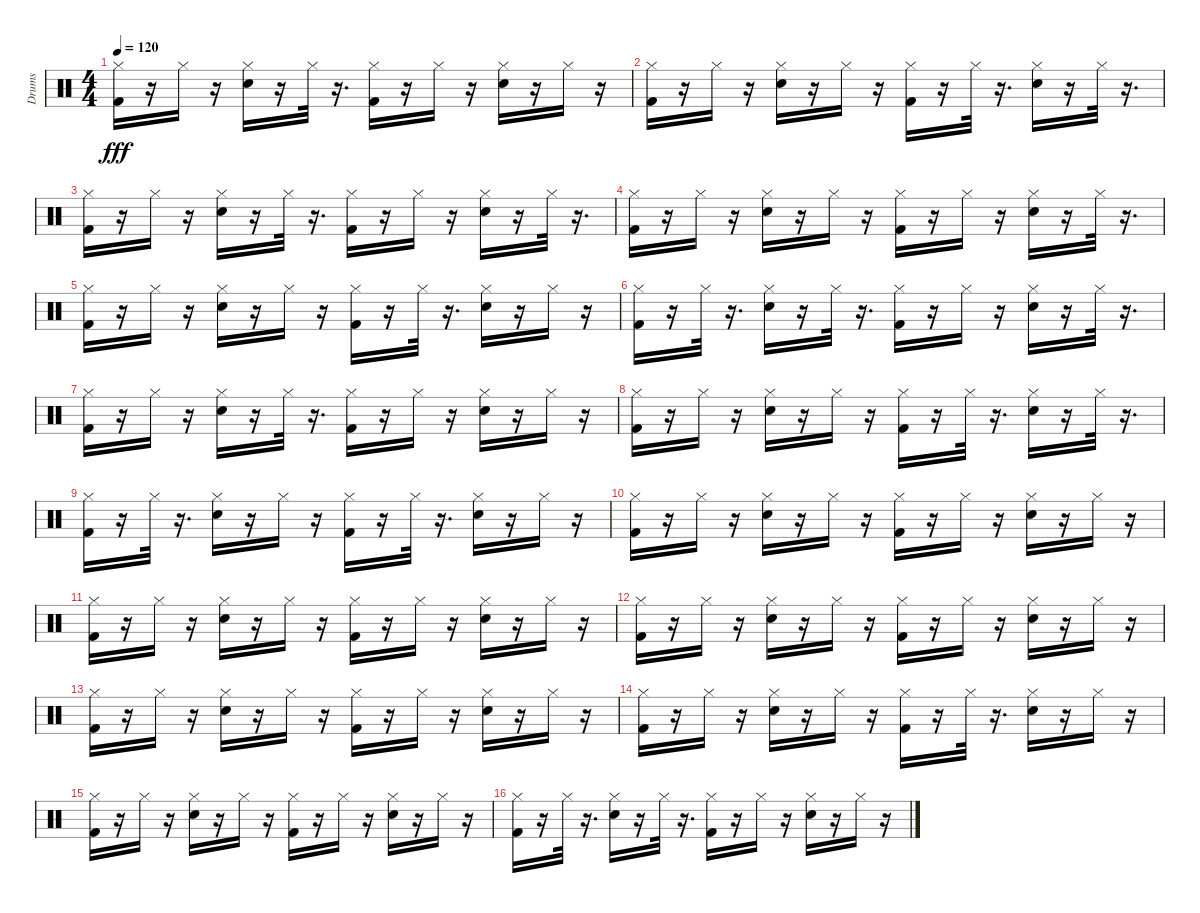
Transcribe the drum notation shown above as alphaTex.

\track ("Drums" "Drums") {instrument percussion}
\staff {score}
\articulation defaults
\ts (4 4)
\tempo 120
\clef neutral
\ks c
("Hi-Hat (closed)" "Kick (hit) 2").16{dy fff} r.16 "Hi-Hat (closed)".16 r.16 ("Snare (hit) 2" "Hi-Hat (closed)").16 r.16 "Hi-Hat (closed)".32 r.16{d} ("Hi-Hat (closed)" "Kick (hit) 2").16 r.16 "Hi-Hat (closed)".16 r.16 ("Snare (hit) 2" "Hi-Hat (closed)").16 r.16 "Hi-Hat (closed)".16 r.16 |
("Hi-Hat (closed)" "Kick (hit) 2").16 r.16 "Hi-Hat (closed)".16 r.16 ("Snare (hit) 2" "Hi-Hat (closed)").16 r.16 "Hi-Hat (closed)".16 r.16 ("Hi-Hat (closed)" "Kick (hit) 2").16 r.16 "Hi-Hat (closed)".32 r.16{d} ("Snare (hit) 2" "Hi-Hat (closed)").16 r.16 "Hi-Hat (closed)".32 r.16{d} |
("Hi-Hat (closed)" "Kick (hit) 2").16 r.16 "Hi-Hat (closed)".16 r.16 ("Snare (hit) 2" "Hi-Hat (closed)").16 r.16 "Hi-Hat (closed)".32 r.16{d} ("Hi-Hat (closed)" "Kick (hit) 2").16 r.16 "Hi-Hat (closed)".16 r.16 ("Snare (hit) 2" "Hi-Hat (closed)").16 r.16 "Hi-Hat (closed)".32 r.16{d} |
("Hi-Hat (closed)" "Kick (hit) 2").16 r.16 "Hi-Hat (closed)".16 r.16 ("Snare (hit) 2" "Hi-Hat (closed)").16 r.16 "Hi-Hat (closed)".16 r.16 ("Hi-Hat (closed)" "Kick (hit) 2").16 r.16 "Hi-Hat (closed)".16 r.16 ("Snare (hit) 2" "Hi-Hat (closed)").16 r.16 "Hi-Hat (closed)".32 r.16{d} |
("Hi-Hat (closed)" "Kick (hit) 2").16 r.16 "Hi-Hat (closed)".16 r.16 ("Snare (hit) 2" "Hi-Hat (closed)").16 r.16 "Hi-Hat (closed)".16 r.16 ("Hi-Hat (closed)" "Kick (hit) 2").16 r.16 "Hi-Hat (closed)".32 r.16{d} ("Snare (hit) 2" "Hi-Hat (closed)").16 r.16 "Hi-Hat (closed)".16 r.16 |
("Hi-Hat (closed)" "Kick (hit) 2").16 r.16 "Hi-Hat (closed)".32 r.16{d} ("Snare (hit) 2" "Hi-Hat (closed)").16 r.16 "Hi-Hat (closed)".32 r.16{d} ("Hi-Hat (closed)" "Kick (hit) 2").16 r.16 "Hi-Hat (closed)".16 r.16 ("Snare (hit) 2" "Hi-Hat (closed)").16 r.16 "Hi-Hat (closed)".32 r.16{d} |
("Hi-Hat (closed)" "Kick (hit) 2").16 r.16 "Hi-Hat (closed)".16 r.16 ("Snare (hit) 2" "Hi-Hat (closed)").16 r.16 "Hi-Hat (closed)".32 r.16{d} ("Hi-Hat (closed)" "Kick (hit) 2").16 r.16 "Hi-Hat (closed)".16 r.16 ("Snare (hit) 2" "Hi-Hat (closed)").16 r.16 "Hi-Hat (closed)".16 r.16 |
("Hi-Hat (closed)" "Kick (hit) 2").16 r.16 "Hi-Hat (closed)".16 r.16 ("Snare (hit) 2" "Hi-Hat (closed)").16 r.16 "Hi-Hat (closed)".16 r.16 ("Hi-Hat (closed)" "Kick (hit) 2").16 r.16 "Hi-Hat (closed)".32 r.16{d} ("Snare (hit) 2" "Hi-Hat (closed)").16 r.16 "Hi-Hat (closed)".32 r.16{d} |
("Hi-Hat (closed)" "Kick (hit) 2").16 r.16 "Hi-Hat (closed)".32 r.16{d} ("Snare (hit) 2" "Hi-Hat (closed)").16 r.16 "Hi-Hat (closed)".16 r.16 ("Hi-Hat (closed)" "Kick (hit) 2").16 r.16 "Hi-Hat (closed)".32 r.16{d} ("Snare (hit) 2" "Hi-Hat (closed)").16 r.16 "Hi-Hat (closed)".16 r.16 |
("Hi-Hat (closed)" "Kick (hit) 2").16 r.16 "Hi-Hat (closed)".16 r.16 ("Snare (hit) 2" "Hi-Hat (closed)").16 r.16 "Hi-Hat (closed)".16 r.16 ("Hi-Hat (closed)" "Kick (hit) 2").16 r.16 "Hi-Hat (closed)".16 r.16 ("Snare (hit) 2" "Hi-Hat (closed)").16 r.16 "Hi-Hat (closed)".16 r.16 |
("Hi-Hat (closed)" "Kick (hit) 2").16 r.16 "Hi-Hat (closed)".16 r.16 ("Snare (hit) 2" "Hi-Hat (closed)").16 r.16 "Hi-Hat (closed)".16 r.16 ("Hi-Hat (closed)" "Kick (hit) 2").16 r.16 "Hi-Hat (closed)".16 r.16 ("Snare (hit) 2" "Hi-Hat (closed)").16 r.16 "Hi-Hat (closed)".16 r.16 |
("Hi-Hat (closed)" "Kick (hit) 2").16 r.16 "Hi-Hat (closed)".16 r.16 ("Snare (hit) 2" "Hi-Hat (closed)").16 r.16 "Hi-Hat (closed)".16 r.16 ("Hi-Hat (closed)" "Kick (hit) 2").16 r.16 "Hi-Hat (closed)".16 r.16 ("Snare (hit) 2" "Hi-Hat (closed)").16 r.16 "Hi-Hat (closed)".16 r.16 |
("Hi-Hat (closed)" "Kick (hit) 2").16 r.16 "Hi-Hat (closed)".16 r.16 ("Snare (hit) 2" "Hi-Hat (closed)").16 r.16 "Hi-Hat (closed)".16 r.16 ("Hi-Hat (closed)" "Kick (hit) 2").16 r.16 "Hi-Hat (closed)".16 r.16 ("Snare (hit) 2" "Hi-Hat (closed)").16 r.16 "Hi-Hat (closed)".16 r.16 |
("Hi-Hat (closed)" "Kick (hit) 2").16 r.16 "Hi-Hat (closed)".16 r.16 ("Snare (hit) 2" "Hi-Hat (closed)").16 r.16 "Hi-Hat (closed)".16 r.16 ("Hi-Hat (closed)" "Kick (hit) 2").16 r.16 "Hi-Hat (closed)".32 r.16{d} ("Snare (hit) 2" "Hi-Hat (closed)").16 r.16 "Hi-Hat (closed)".16 r.16 |
("Hi-Hat (closed)" "Kick (hit) 2").16 r.16 "Hi-Hat (closed)".16 r.16 ("Snare (hit) 2" "Hi-Hat (closed)").16 r.16 "Hi-Hat (closed)".16 r.16 ("Hi-Hat (closed)" "Kick (hit) 2").16 r.16 "Hi-Hat (closed)".16 r.16 ("Snare (hit) 2" "Hi-Hat (closed)").16 r.16 "Hi-Hat (closed)".16 r.16 |
("Hi-Hat (closed)" "Kick (hit) 2").16 r.16 "Hi-Hat (closed)".32 r.16{d} ("Snare (hit) 2" "Hi-Hat (closed)").16 r.16 "Hi-Hat (closed)".32 r.16{d} ("Hi-Hat (closed)" "Kick (hit) 2").16 r.16 "Hi-Hat (closed)".16 r.16 ("Snare (hit) 2" "Hi-Hat (closed)").16 r.16 "Hi-Hat (closed)".16 r.16
